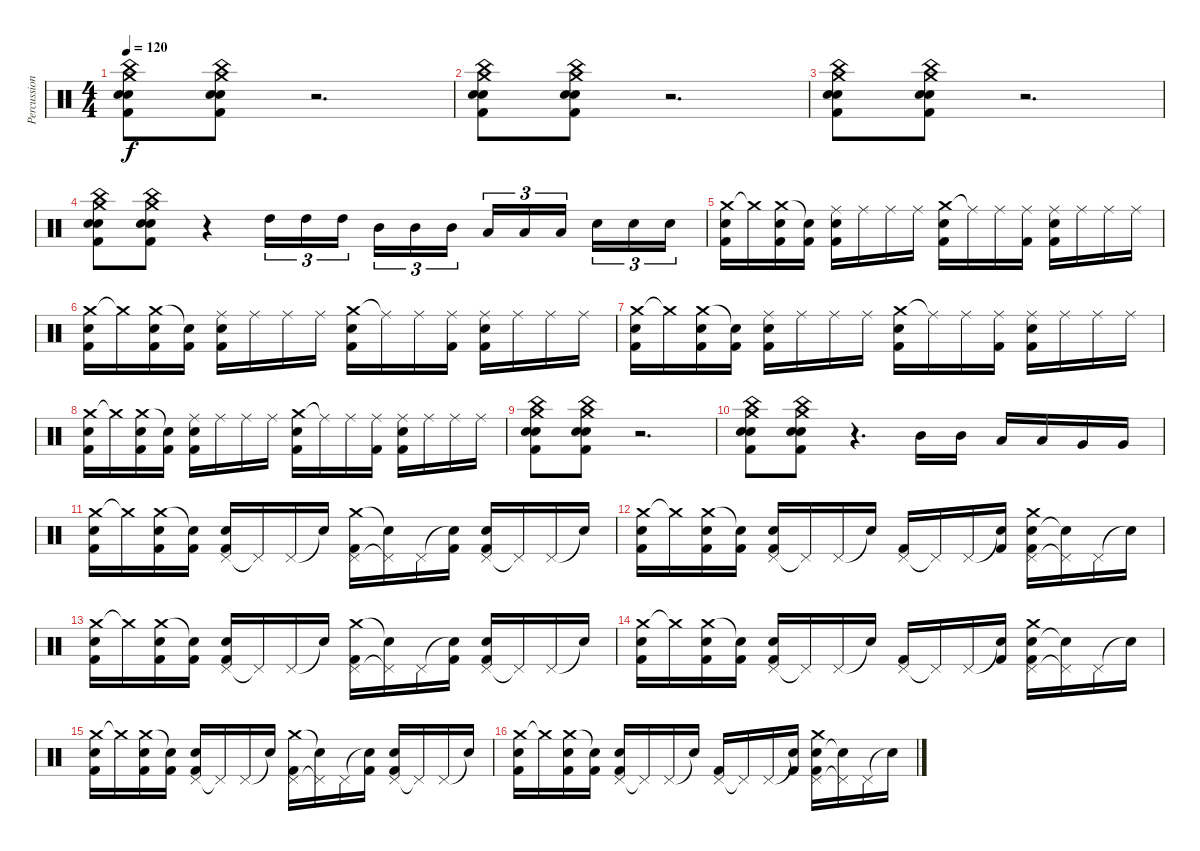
\track ("Percussion" "Percussion") {instrument percussion}
\staff {score}
\articulation defaults
\ts (4 4)
\tempo 120
\clef neutral
\ks c
("China (hit)" "Crash medium (hit)" "Snare (hit) 2" "Kick (hit) 2" "Metronome (bell)").8{dy f} ("China (hit)" "Crash medium (hit)" "Snare (hit) 2" "Kick (hit) 2" "Metronome (bell)").8 r.2{d} |
("China (hit)" "Crash medium (hit)" "Snare (hit) 2" "Kick (hit) 2" "Metronome (bell)").8 ("China (hit)" "Crash medium (hit)" "Snare (hit) 2" "Kick (hit) 2" "Metronome (bell)").8 r.2{d} |
("China (hit)" "Crash medium (hit)" "Snare (hit) 2" "Kick (hit) 2" "Metronome (bell)").8 ("China (hit)" "Crash medium (hit)" "Snare (hit) 2" "Kick (hit) 2" "Metronome (bell)").8 r.2{d} |
("China (hit)" "Crash medium (hit)" "Snare (hit) 2" "Kick (hit) 2" "Metronome (bell)").8 ("China (hit)" "Crash medium (hit)" "Snare (hit) 2" "Kick (hit) 2" "Metronome (bell)").8 r.4{balance 16} "High Tom (hit)".16{tu (3 2)} "High Tom (hit)".16{tu (3 2)} "High Tom (hit)".16{tu (3 2)} "Mid Tom (hit)".16{tu (3 2)} "Mid Tom (hit)".16{tu (3 2)} "Mid Tom (hit)".16{tu (3 2)} "Low Tom (hit)".16{tu (3 2)} "Low Tom (hit)".16{tu (3 2)} "Low Tom (hit)".16{tu (3 2)} "Electric Snare (hit)".16{tu (3 2)} "Electric Snare (hit)".16{tu (3 2)} "Electric Snare (hit)".16{tu (3 2)} |
("Crash medium (hit)" "Snare (hit) 2" "Kick (hit) 2").16{balance 8} "Crash medium (hit)"{t}.16 ("Crash medium (hit)" "Snare (hit) 2" "Kick (hit) 2").16 ("Snare (hit)"{t} "Kick (hit) 2").16 ("Ride (middle)" "Snare (hit) 2" "Kick (hit) 2").16 "Ride (middle)".16 "Ride (middle)".16 "Ride (middle)".16 ("Crash medium (hit)" "Snare (hit) 2" "Kick (hit) 2").16 "Ride (middle)"{t}.16 "Ride (middle)".16 ("Ride (middle)" "Kick (hit) 2").16 ("Ride (middle)" "Snare (hit) 2" "Kick (hit) 2").16 "Ride (middle)".16 "Ride (middle)".16 "Ride (middle)".16 |
("Crash medium (hit)" "Snare (hit) 2" "Kick (hit) 2").16 "Crash medium (hit)"{t}.16 ("Crash medium (hit)" "Snare (hit) 2" "Kick (hit) 2").16 ("Snare (hit)"{t} "Kick (hit) 2").16 ("Ride (middle)" "Snare (hit) 2" "Kick (hit) 2").16 "Ride (middle)".16 "Ride (middle)".16 "Ride (middle)".16 ("Crash medium (hit)" "Snare (hit) 2" "Kick (hit) 2").16 "Ride (middle)"{t}.16 "Ride (middle)".16 ("Ride (middle)" "Kick (hit) 2").16 ("Ride (middle)" "Snare (hit) 2" "Kick (hit) 2").16 "Ride (middle)".16 "Ride (middle)".16 "Ride (middle)".16 |
("Crash medium (hit)" "Snare (hit) 2" "Kick (hit) 2").16 "Crash medium (hit)"{t}.16 ("Crash medium (hit)" "Snare (hit) 2" "Kick (hit) 2").16 ("Snare (hit)"{t} "Kick (hit) 2").16 ("Ride (middle)" "Snare (hit) 2" "Kick (hit) 2").16 "Ride (middle)".16 "Ride (middle)".16 "Ride (middle)".16 ("Crash medium (hit)" "Snare (hit) 2" "Kick (hit) 2").16 "Ride (middle)"{t}.16 "Ride (middle)".16 ("Ride (middle)" "Kick (hit) 2").16 ("Ride (middle)" "Snare (hit) 2" "Kick (hit) 2").16 "Ride (middle)".16 "Ride (middle)".16 "Ride (middle)".16 |
("Crash medium (hit)" "Snare (hit) 2" "Kick (hit) 2").16 "Crash medium (hit)"{t}.16 ("Crash medium (hit)" "Snare (hit) 2" "Kick (hit) 2").16 ("Snare (hit)"{t} "Kick (hit) 2").16 ("Ride (middle)" "Snare (hit) 2" "Kick (hit) 2").16 "Ride (middle)".16 "Ride (middle)".16 "Ride (middle)".16 ("Crash medium (hit)" "Snare (hit) 2" "Kick (hit) 2").16 "Ride (middle)"{t}.16 "Ride (middle)".16 ("Ride (middle)" "Kick (hit) 2").16 ("Ride (middle)" "Snare (hit) 2" "Kick (hit) 2").16 "Ride (middle)".16 "Ride (middle)".16 "Ride (middle)".16 |
("China (hit)" "Crash medium (hit)" "Snare (hit) 2" "Kick (hit) 2" "Metronome (bell)").8 ("China (hit)" "Crash medium (hit)" "Snare (hit) 2" "Kick (hit) 2" "Metronome (bell)").8 r.2{d} |
("China (hit)" "Crash medium (hit)" "Snare (hit) 2" "Kick (hit) 2" "Metronome (bell)").8 ("China (hit)" "Crash medium (hit)" "Snare (hit) 2" "Kick (hit) 2" "Metronome (bell)").8 r.4{d} "Mid Tom (hit)".16 "Mid Tom (hit)".16 "Low Tom (hit)".16 "Low Tom (hit)".16 "Very Low Tom (hit)".16 "Very Low Tom (hit)".16 |
("Crash medium (hit)" "Snare (hit) 2" "Kick (hit) 2").16 "Crash medium (hit)"{t}.16 ("Crash medium (hit)" "Snare (hit) 2" "Kick (hit) 2").16 ("Snare (hit)"{t} "Kick (hit) 2").16 ("Pedal Hi-Hat (hit)" "Snare (hit) 2" "Kick (hit) 2").16 "Pedal Hi-Hat (hit)"{t}.16 "Pedal Hi-Hat (hit)".16 "Snare (hit)"{t}.16 ("Pedal Hi-Hat (hit)" "Crash medium (hit)" "Kick (hit) 2").16 ("Pedal Hi-Hat (hit)"{t} "Snare (hit)"{t}).16 "Pedal Hi-Hat (hit)".16 ("Snare (hit)"{t} "Kick (hit) 2").16 ("Pedal Hi-Hat (hit)" "Snare (hit) 2" "Kick (hit) 2").16 "Pedal Hi-Hat (hit)"{t}.16 "Pedal Hi-Hat (hit)".16 "Snare (hit)"{t}.16 |
("Crash medium (hit)" "Snare (hit) 2" "Kick (hit) 2").16 "Crash medium (hit)"{t}.16 ("Crash medium (hit)" "Snare (hit) 2" "Kick (hit) 2").16 ("Snare (hit)"{t} "Kick (hit) 2").16 ("Pedal Hi-Hat (hit)" "Snare (hit) 2" "Kick (hit) 2").16 "Pedal Hi-Hat (hit)"{t}.16 "Pedal Hi-Hat (hit)".16 "Snare (hit)"{t}.16 ("Pedal Hi-Hat (hit)" "Kick (hit) 2").16 "Pedal Hi-Hat (hit)"{t}.16 "Pedal Hi-Hat (hit)".16 ("Snare (hit)"{t} "Kick (hit) 2").16 ("Pedal Hi-Hat (hit)" "Snare (hit) 2" "Crash medium (hit)" "Kick (hit) 2").16 ("Pedal Hi-Hat (hit)"{t} "Snare (hit)"{t}).16 "Pedal Hi-Hat (hit)".16 "Snare (hit)"{t}.16 |
("Crash medium (hit)" "Snare (hit) 2" "Kick (hit) 2").16 "Crash medium (hit)"{t}.16 ("Crash medium (hit)" "Snare (hit) 2" "Kick (hit) 2").16 ("Snare (hit)"{t} "Kick (hit) 2").16 ("Pedal Hi-Hat (hit)" "Snare (hit) 2" "Kick (hit) 2").16 "Pedal Hi-Hat (hit)"{t}.16 "Pedal Hi-Hat (hit)".16 "Snare (hit)"{t}.16 ("Pedal Hi-Hat (hit)" "Crash medium (hit)" "Kick (hit) 2").16 ("Pedal Hi-Hat (hit)"{t} "Snare (hit)"{t}).16 "Pedal Hi-Hat (hit)".16 ("Snare (hit)"{t} "Kick (hit) 2").16 ("Pedal Hi-Hat (hit)" "Snare (hit) 2" "Kick (hit) 2").16 "Pedal Hi-Hat (hit)"{t}.16 "Pedal Hi-Hat (hit)".16 "Snare (hit)"{t}.16 |
("Crash medium (hit)" "Snare (hit) 2" "Kick (hit) 2").16 "Crash medium (hit)"{t}.16 ("Crash medium (hit)" "Snare (hit) 2" "Kick (hit) 2").16 ("Snare (hit)"{t} "Kick (hit) 2").16 ("Pedal Hi-Hat (hit)" "Snare (hit) 2" "Kick (hit) 2").16 "Pedal Hi-Hat (hit)"{t}.16 "Pedal Hi-Hat (hit)".16 "Snare (hit)"{t}.16 ("Pedal Hi-Hat (hit)" "Kick (hit) 2").16 "Pedal Hi-Hat (hit)"{t}.16 "Pedal Hi-Hat (hit)".16 ("Snare (hit)"{t} "Kick (hit) 2").16 ("Pedal Hi-Hat (hit)" "Snare (hit) 2" "Crash medium (hit)" "Kick (hit) 2").16 ("Pedal Hi-Hat (hit)"{t} "Snare (hit)"{t}).16 "Pedal Hi-Hat (hit)".16 "Snare (hit)"{t}.16 |
("Crash medium (hit)" "Snare (hit) 2" "Kick (hit) 2").16 "Crash medium (hit)"{t}.16 ("Crash medium (hit)" "Snare (hit) 2" "Kick (hit) 2").16 ("Snare (hit)"{t} "Kick (hit) 2").16 ("Pedal Hi-Hat (hit)" "Snare (hit) 2" "Kick (hit) 2").16 "Pedal Hi-Hat (hit)"{t}.16 "Pedal Hi-Hat (hit)".16 "Snare (hit)"{t}.16 ("Pedal Hi-Hat (hit)" "Crash medium (hit)" "Kick (hit) 2").16 ("Pedal Hi-Hat (hit)"{t} "Snare (hit)"{t}).16 "Pedal Hi-Hat (hit)".16 ("Snare (hit)"{t} "Kick (hit) 2").16 ("Pedal Hi-Hat (hit)" "Snare (hit) 2" "Kick (hit) 2").16 "Pedal Hi-Hat (hit)"{t}.16 "Pedal Hi-Hat (hit)".16 "Snare (hit)"{t}.16 |
("Crash medium (hit)" "Snare (hit) 2" "Kick (hit) 2").16 "Crash medium (hit)"{t}.16 ("Crash medium (hit)" "Snare (hit) 2" "Kick (hit) 2").16 ("Snare (hit)"{t} "Kick (hit) 2").16 ("Pedal Hi-Hat (hit)" "Snare (hit) 2" "Kick (hit) 2").16 "Pedal Hi-Hat (hit)"{t}.16 "Pedal Hi-Hat (hit)".16 "Snare (hit)"{t}.16 ("Pedal Hi-Hat (hit)" "Kick (hit) 2").16 "Pedal Hi-Hat (hit)"{t}.16 "Pedal Hi-Hat (hit)".16 ("Snare (hit)"{t} "Kick (hit) 2").16 ("Pedal Hi-Hat (hit)" "Snare (hit) 2" "Crash medium (hit)" "Kick (hit) 2").16 ("Pedal Hi-Hat (hit)"{t} "Snare (hit)"{t}).16 "Pedal Hi-Hat (hit)".16 "Snare (hit)"{t}.16
